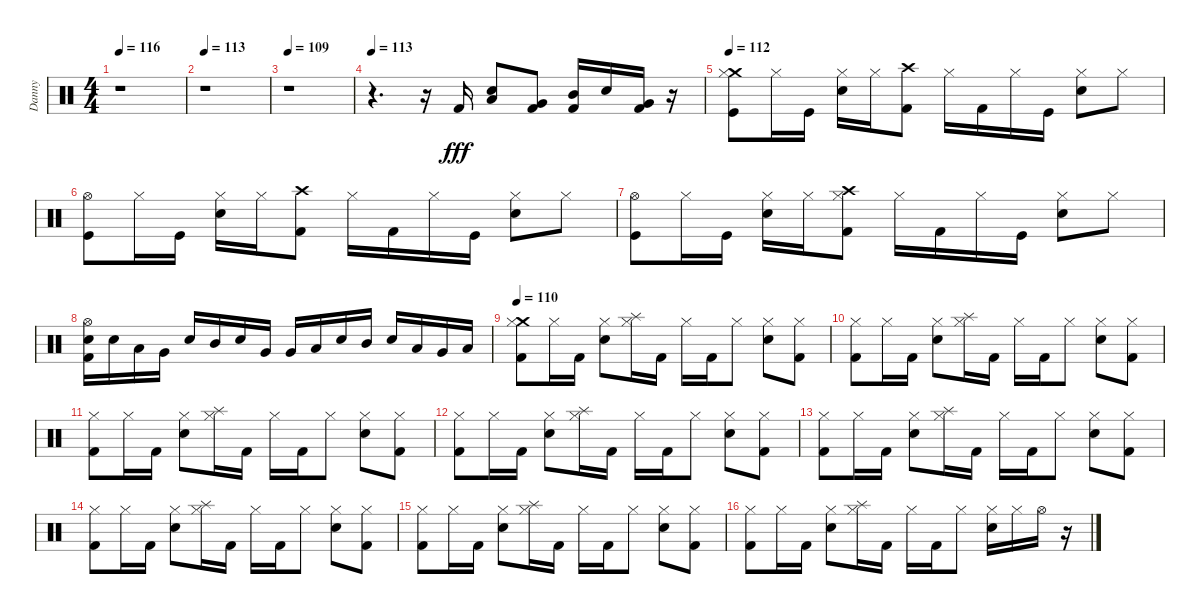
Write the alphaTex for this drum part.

\track ("Danny" "Danny") {instrument percussion}
\staff {score}
\articulation defaults
\ts (4 4)
\tempo 116
\clef neutral
\ks c
r.1{dy fff} |
\tempo 113
r.1 |
\tempo 109
r.1 |
\tempo 113
r.4{d} r.16 "Kick (hit) 2".16 ("Low Tom (hit)" "Snare (hit) 2").8 ("Very Low Tom (hit)" "Kick (hit) 2").8 ("Mid Tom (hit)" "Kick (hit) 2").16 "Snare (hit) 2".16 ("Very Low Tom (hit)" "Kick (hit) 2").16 r.16 |
\tempo 112
("Crash medium (hit)" "Hi-Hat (closed)" "Kick (hit)").8 "Hi-Hat (closed)".16 "Kick (hit)".16 ("Hi-Hat (closed)" "Snare (hit) 2").16 "Hi-Hat (closed)".16 ("Kick (hit) 2" "Crash high (hit)").8 "Hi-Hat (closed)".16 "Kick (hit) 2".16 "Hi-Hat (closed)".16 "Kick (hit)".16 ("Snare (hit) 2" "Hi-Hat (closed)").8 "Hi-Hat (closed)".8 |
("Hi-Hat (open)" "Kick (hit)").8 "Hi-Hat (closed)".16 "Kick (hit)".16 ("Hi-Hat (closed)" "Snare (hit) 2").16 "Hi-Hat (closed)".16 ("Kick (hit) 2" "Crash high (hit)").8 "Hi-Hat (closed)".16 "Kick (hit) 2".16 "Hi-Hat (closed)".16 "Kick (hit)".16 ("Snare (hit) 2" "Hi-Hat (closed)").8 "Hi-Hat (closed)".8 |
("Hi-Hat (open)" "Kick (hit)").8 "Hi-Hat (closed)".16 "Kick (hit)".16 ("Hi-Hat (closed)" "Snare (hit) 2").16 "Hi-Hat (closed)".16 ("Crash high (hit)" "Hi-Hat (closed)" "Kick (hit) 2").8 "Hi-Hat (closed)".16 "Kick (hit) 2".16 "Hi-Hat (closed)".16 "Kick (hit)".16 ("Snare (hit) 2" "Hi-Hat (closed)").8 "Hi-Hat (closed)".8 |
("Kick (hit) 2" "Hi-Hat (open)" "Snare (hit) 2").16 "Snare (hit) 2".16 "Low Tom (hit)".16 "Very Low Tom (hit)".16 "Snare (hit) 2".16 "Mid Tom (hit)".16 "Snare (hit) 2".16 "Very Low Tom (hit)".16 "Very Low Tom (hit)".16 "Low Floor Tom (hit)".16 "Snare (hit) 2".16 "Mid Tom (hit)".16 "Snare (hit) 2".16 "Low Tom (hit)".16 "Very Low Tom (hit)".16 "Low Floor Tom (hit)".16 |
\tempo 110
("Crash medium (hit)" "Kick (hit) 2" "Hi-Hat (closed)").8 "Hi-Hat (closed)".16 "Kick (hit) 2".16 ("Snare (hit) 2" "Hi-Hat (closed)").8 ("Splash (hit)" "Hi-Hat (closed)").16 "Kick (hit) 2".16 "Hi-Hat (closed)".16 "Kick (hit) 2".16 "Hi-Hat (closed)".8 ("Snare (hit) 2" "Hi-Hat (closed)").8 ("Kick (hit) 2" "Hi-Hat (closed)").8 |
("Kick (hit) 2" "Hi-Hat (closed)").8 "Hi-Hat (closed)".16 "Kick (hit) 2".16 ("Snare (hit) 2" "Hi-Hat (closed)").8 ("Splash (hit)" "Hi-Hat (closed)").16 "Kick (hit) 2".16 "Hi-Hat (closed)".16 "Kick (hit) 2".16 "Hi-Hat (closed)".8 ("Snare (hit) 2" "Hi-Hat (closed)").8 ("Kick (hit) 2" "Hi-Hat (closed)").8 |
("Kick (hit) 2" "Hi-Hat (closed)").8 "Hi-Hat (closed)".16 "Kick (hit) 2".16 ("Snare (hit) 2" "Hi-Hat (closed)").8 ("Splash (hit)" "Hi-Hat (closed)").16 "Kick (hit) 2".16 "Hi-Hat (closed)".16 "Kick (hit) 2".16 "Hi-Hat (closed)".8 ("Snare (hit) 2" "Hi-Hat (closed)").8 ("Kick (hit) 2" "Hi-Hat (closed)").8 |
("Kick (hit) 2" "Hi-Hat (closed)").8 "Hi-Hat (closed)".16 "Kick (hit) 2".16 ("Snare (hit) 2" "Hi-Hat (closed)").8 ("Splash (hit)" "Hi-Hat (closed)").16 "Kick (hit) 2".16 "Hi-Hat (closed)".16 "Kick (hit) 2".16 "Hi-Hat (closed)".8 ("Snare (hit) 2" "Hi-Hat (closed)").8 ("Kick (hit) 2" "Hi-Hat (closed)").8 |
("Kick (hit) 2" "Hi-Hat (closed)").8 "Hi-Hat (closed)".16 "Kick (hit) 2".16 ("Snare (hit) 2" "Hi-Hat (closed)").8 ("Splash (hit)" "Hi-Hat (closed)").16 "Kick (hit) 2".16 "Hi-Hat (closed)".16 "Kick (hit) 2".16 "Hi-Hat (closed)".8 ("Snare (hit) 2" "Hi-Hat (closed)").8 ("Kick (hit) 2" "Hi-Hat (closed)").8 |
("Kick (hit) 2" "Hi-Hat (closed)").8 "Hi-Hat (closed)".16 "Kick (hit) 2".16 ("Snare (hit) 2" "Hi-Hat (closed)").8 ("Splash (hit)" "Hi-Hat (closed)").16 "Kick (hit) 2".16 "Hi-Hat (closed)".16 "Kick (hit) 2".16 "Hi-Hat (closed)".8 ("Snare (hit) 2" "Hi-Hat (closed)").8 ("Kick (hit) 2" "Hi-Hat (closed)").8 |
("Kick (hit) 2" "Hi-Hat (closed)").8 "Hi-Hat (closed)".16 "Kick (hit) 2".16 ("Snare (hit) 2" "Hi-Hat (closed)").8 ("Splash (hit)" "Hi-Hat (closed)").16 "Kick (hit) 2".16 "Hi-Hat (closed)".16 "Kick (hit) 2".16 "Hi-Hat (closed)".8 ("Snare (hit) 2" "Hi-Hat (closed)").8 ("Kick (hit) 2" "Hi-Hat (closed)").8 |
("Kick (hit) 2" "Hi-Hat (closed)").8 "Hi-Hat (closed)".16 "Kick (hit) 2".16 ("Snare (hit) 2" "Hi-Hat (closed)").8 ("Splash (hit)" "Hi-Hat (closed)").16 "Kick (hit) 2".16 "Hi-Hat (closed)".16 "Kick (hit) 2".16 "Hi-Hat (closed)".8 ("Snare (hit) 2" "Hi-Hat (closed)").16 "Hi-Hat (closed)".16 "Hi-Hat (open)".16 r.16
